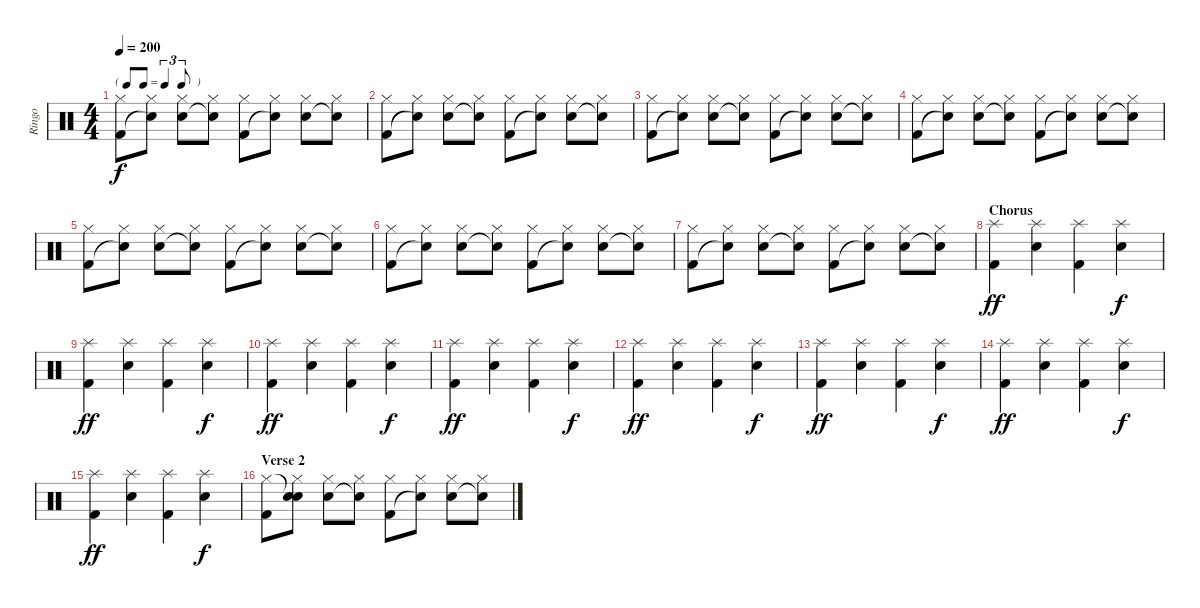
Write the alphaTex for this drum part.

\track ("Ringo" "Ringo") {instrument percussion}
\staff {score}
\articulation defaults
\ts (4 4)
\tf triplet8th
\tempo 200
\clef neutral
\ks c
("Hi-Hat (closed)" "Kick (hit) 2").8{dy f} ("Hi-Hat (closed)" "Snare (hit)"{t}).8 ("Hi-Hat (closed)" "Electric Snare (hit)").8 ("Hi-Hat (closed)" "Snare (hit)"{t}).8 ("Hi-Hat (closed)" "Kick (hit) 2").8 ("Hi-Hat (closed)" "Snare (hit)"{t}).8 ("Hi-Hat (closed)" "Electric Snare (hit)").8 ("Hi-Hat (closed)" "Snare (hit)"{t}).8 |
("Hi-Hat (closed)" "Kick (hit) 2").8 ("Hi-Hat (closed)" "Snare (hit)"{t}).8 ("Hi-Hat (closed)" "Electric Snare (hit)").8 ("Hi-Hat (closed)" "Snare (hit)"{t}).8 ("Hi-Hat (closed)" "Kick (hit) 2").8 ("Hi-Hat (closed)" "Snare (hit)"{t}).8 ("Hi-Hat (closed)" "Electric Snare (hit)").8 ("Hi-Hat (closed)" "Snare (hit)"{t}).8 |
("Hi-Hat (closed)" "Kick (hit) 2").8 ("Hi-Hat (closed)" "Snare (hit)"{t}).8 ("Hi-Hat (closed)" "Electric Snare (hit)").8 ("Hi-Hat (closed)" "Snare (hit)"{t}).8 ("Hi-Hat (closed)" "Kick (hit) 2").8 ("Hi-Hat (closed)" "Snare (hit)"{t}).8 ("Hi-Hat (closed)" "Electric Snare (hit)").8 ("Hi-Hat (closed)" "Snare (hit)"{t}).8 |
("Hi-Hat (closed)" "Kick (hit) 2").8 ("Hi-Hat (closed)" "Snare (hit)"{t}).8 ("Hi-Hat (closed)" "Electric Snare (hit)").8 ("Hi-Hat (closed)" "Snare (hit)"{t}).8 ("Hi-Hat (closed)" "Kick (hit) 2").8 ("Hi-Hat (closed)" "Snare (hit)"{t}).8 ("Hi-Hat (closed)" "Electric Snare (hit)").8 ("Hi-Hat (closed)" "Snare (hit)"{t}).8 |
("Hi-Hat (closed)" "Kick (hit) 2").8 ("Hi-Hat (closed)" "Snare (hit)"{t}).8 ("Hi-Hat (closed)" "Electric Snare (hit)").8 ("Hi-Hat (closed)" "Snare (hit)"{t}).8 ("Hi-Hat (closed)" "Kick (hit) 2").8 ("Hi-Hat (closed)" "Snare (hit)"{t}).8 ("Hi-Hat (closed)" "Electric Snare (hit)").8 ("Hi-Hat (closed)" "Snare (hit)"{t}).8 |
("Hi-Hat (closed)" "Kick (hit) 2").8 ("Hi-Hat (closed)" "Snare (hit)"{t}).8 ("Hi-Hat (closed)" "Electric Snare (hit)").8 ("Hi-Hat (closed)" "Snare (hit)"{t}).8 ("Hi-Hat (closed)" "Kick (hit) 2").8 ("Hi-Hat (closed)" "Snare (hit)"{t}).8 ("Hi-Hat (closed)" "Electric Snare (hit)").8 ("Hi-Hat (closed)" "Snare (hit)"{t}).8 |
("Hi-Hat (closed)" "Kick (hit) 2").8 ("Hi-Hat (closed)" "Snare (hit)"{t}).8 ("Hi-Hat (closed)" "Electric Snare (hit)").8 ("Hi-Hat (closed)" "Snare (hit)"{t}).8 ("Hi-Hat (closed)" "Kick (hit) 2").8 ("Hi-Hat (closed)" "Snare (hit)"{t}).8 ("Hi-Hat (closed)" "Electric Snare (hit)").8 ("Hi-Hat (closed)" "Snare (hit)"{t}).8 |
\section ("" "Chorus")
("Splash (hit)" "Kick (hit) 2").4{dy ff} ("Splash (hit)" "Electric Snare (hit)").4 ("Splash (hit)" "Kick (hit) 2").4 ("Splash (hit)" "Electric Snare (hit)").4{dy f} |
("Splash (hit)" "Kick (hit) 2").4{dy ff} ("Splash (hit)" "Electric Snare (hit)").4 ("Splash (hit)" "Kick (hit) 2").4 ("Splash (hit)" "Electric Snare (hit)").4{dy f} |
("Splash (hit)" "Kick (hit) 2").4{dy ff} ("Splash (hit)" "Electric Snare (hit)").4 ("Splash (hit)" "Kick (hit) 2").4 ("Splash (hit)" "Electric Snare (hit)").4{dy f} |
("Splash (hit)" "Kick (hit) 2").4{dy ff} ("Splash (hit)" "Electric Snare (hit)").4 ("Splash (hit)" "Kick (hit) 2").4 ("Splash (hit)" "Electric Snare (hit)").4{dy f} |
("Splash (hit)" "Kick (hit) 2").4{dy ff} ("Splash (hit)" "Electric Snare (hit)").4 ("Splash (hit)" "Kick (hit) 2").4 ("Splash (hit)" "Electric Snare (hit)").4{dy f} |
("Splash (hit)" "Kick (hit) 2").4{dy ff} ("Splash (hit)" "Electric Snare (hit)").4 ("Splash (hit)" "Kick (hit) 2").4 ("Splash (hit)" "Electric Snare (hit)").4{dy f} |
("Splash (hit)" "Kick (hit) 2").4{dy ff} ("Splash (hit)" "Electric Snare (hit)").4 ("Splash (hit)" "Kick (hit) 2").4 ("Splash (hit)" "Electric Snare (hit)").4{dy f} |
("Splash (hit)" "Kick (hit) 2").4{dy ff} ("Splash (hit)" "Electric Snare (hit)").4 ("Splash (hit)" "Kick (hit) 2").4 ("Splash (hit)" "Electric Snare (hit)").4{dy f} |
\section ("" "Verse 2")
("Hi-Hat (closed)" "Kick (hit) 2").8 ("Snare (hit)"{t} "Hi-Hat (closed)" "Snare (hit)").8 ("Hi-Hat (closed)" "Electric Snare (hit)").8 ("Hi-Hat (closed)" "Snare (hit)"{t}).8 ("Hi-Hat (closed)" "Kick (hit) 2").8 ("Hi-Hat (closed)" "Snare (hit)"{t}).8 ("Hi-Hat (closed)" "Electric Snare (hit)").8 ("Hi-Hat (closed)" "Snare (hit)"{t}).8
